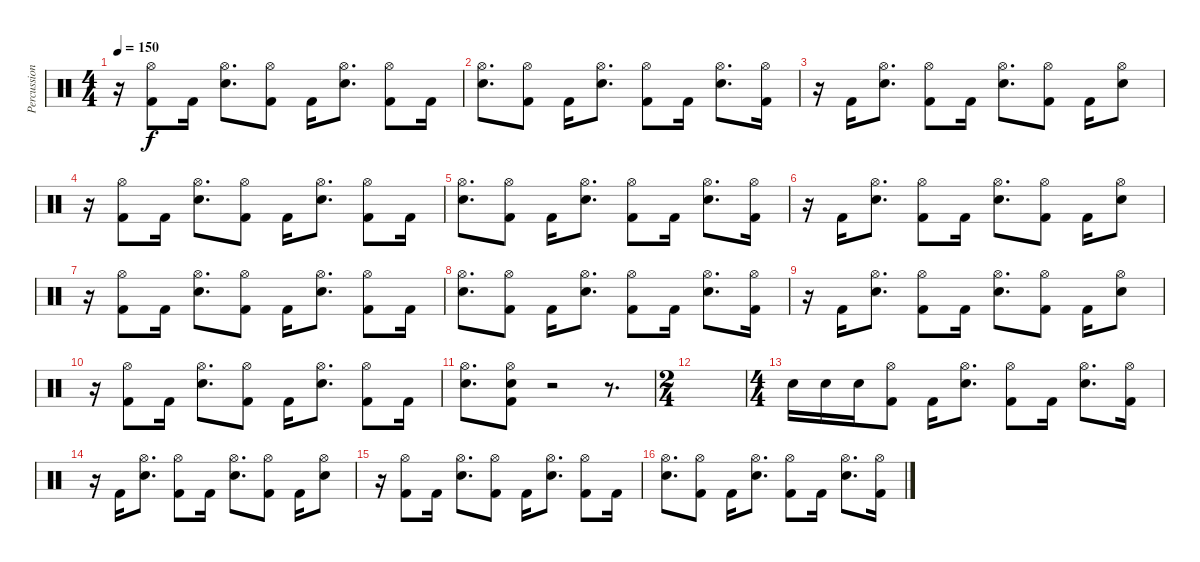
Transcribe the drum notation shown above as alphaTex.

\track ("Percussion" "Percussion") {instrument percussion}
\staff {score}
\articulation defaults
\ts (4 4)
\tempo 150
\clef neutral
\ks c
r.16{dy f} ("Hi-Hat (open)" "Kick (hit) 2").8 "Kick (hit) 2".16 ("Hi-Hat (open)" "Electric Snare (hit)").8{d} ("Hi-Hat (open)" "Kick (hit) 2").8 "Kick (hit) 2".16 ("Hi-Hat (open)" "Electric Snare (hit)").8{d} ("Hi-Hat (open)" "Kick (hit) 2").8 "Kick (hit) 2".16 |
("Hi-Hat (open)" "Electric Snare (hit)").8{d} ("Hi-Hat (open)" "Kick (hit) 2").8 "Kick (hit) 2".16 ("Hi-Hat (open)" "Electric Snare (hit)").8{d} ("Hi-Hat (open)" "Kick (hit) 2").8 "Kick (hit) 2".16 ("Hi-Hat (open)" "Electric Snare (hit)").8{d} ("Hi-Hat (open)" "Kick (hit) 2").16 |
r.16 "Kick (hit) 2".16 ("Hi-Hat (open)" "Electric Snare (hit)").8{d} ("Hi-Hat (open)" "Kick (hit) 2").8 "Kick (hit) 2".16 ("Hi-Hat (open)" "Electric Snare (hit)").8{d} ("Hi-Hat (open)" "Kick (hit) 2").8 "Kick (hit) 2".16 ("Hi-Hat (open)" "Electric Snare (hit)").8 |
r.16 ("Hi-Hat (open)" "Kick (hit) 2").8 "Kick (hit) 2".16 ("Hi-Hat (open)" "Electric Snare (hit)").8{d} ("Hi-Hat (open)" "Kick (hit) 2").8 "Kick (hit) 2".16 ("Hi-Hat (open)" "Electric Snare (hit)").8{d} ("Hi-Hat (open)" "Kick (hit) 2").8 "Kick (hit) 2".16 |
("Hi-Hat (open)" "Electric Snare (hit)").8{d} ("Hi-Hat (open)" "Kick (hit) 2").8 "Kick (hit) 2".16 ("Hi-Hat (open)" "Electric Snare (hit)").8{d} ("Hi-Hat (open)" "Kick (hit) 2").8 "Kick (hit) 2".16 ("Hi-Hat (open)" "Electric Snare (hit)").8{d} ("Hi-Hat (open)" "Kick (hit) 2").16 |
r.16 "Kick (hit) 2".16 ("Hi-Hat (open)" "Electric Snare (hit)").8{d} ("Hi-Hat (open)" "Kick (hit) 2").8 "Kick (hit) 2".16 ("Hi-Hat (open)" "Electric Snare (hit)").8{d} ("Hi-Hat (open)" "Kick (hit) 2").8 "Kick (hit) 2".16 ("Hi-Hat (open)" "Electric Snare (hit)").8 |
r.16 ("Hi-Hat (open)" "Kick (hit) 2").8 "Kick (hit) 2".16 ("Hi-Hat (open)" "Electric Snare (hit)").8{d} ("Hi-Hat (open)" "Kick (hit) 2").8 "Kick (hit) 2".16 ("Hi-Hat (open)" "Electric Snare (hit)").8{d} ("Hi-Hat (open)" "Kick (hit) 2").8 "Kick (hit) 2".16 |
("Hi-Hat (open)" "Electric Snare (hit)").8{d} ("Hi-Hat (open)" "Kick (hit) 2").8 "Kick (hit) 2".16 ("Hi-Hat (open)" "Electric Snare (hit)").8{d} ("Hi-Hat (open)" "Kick (hit) 2").8 "Kick (hit) 2".16 ("Hi-Hat (open)" "Electric Snare (hit)").8{d} ("Hi-Hat (open)" "Kick (hit) 2").16 |
r.16 "Kick (hit) 2".16 ("Hi-Hat (open)" "Electric Snare (hit)").8{d} ("Hi-Hat (open)" "Kick (hit) 2").8 "Kick (hit) 2".16 ("Hi-Hat (open)" "Electric Snare (hit)").8{d} ("Hi-Hat (open)" "Kick (hit) 2").8 "Kick (hit) 2".16 ("Hi-Hat (open)" "Electric Snare (hit)").8 |
r.16 ("Hi-Hat (open)" "Kick (hit) 2").8 "Kick (hit) 2".16 ("Hi-Hat (open)" "Electric Snare (hit)").8{d} ("Hi-Hat (open)" "Kick (hit) 2").8 "Kick (hit) 2".16 ("Hi-Hat (open)" "Electric Snare (hit)").8{d} ("Hi-Hat (open)" "Kick (hit) 2").8 "Kick (hit) 2".16 |
("Hi-Hat (open)" "Electric Snare (hit)").8{d} ("Hi-Hat (open)" "Electric Snare (hit)" "Kick (hit) 2").8 r.2 r.8{d} |
\ts (2 4)
|
\ts (4 4)
"Electric Snare (hit)".16 "Electric Snare (hit)".16 "Electric Snare (hit)".16 ("Hi-Hat (open)" "Kick (hit) 2").8 "Kick (hit) 2".16 ("Hi-Hat (open)" "Electric Snare (hit)").8{d} ("Hi-Hat (open)" "Kick (hit) 2").8 "Kick (hit) 2".16 ("Hi-Hat (open)" "Electric Snare (hit)").8{d} ("Hi-Hat (open)" "Kick (hit) 2").16 |
r.16 "Kick (hit) 2".16 ("Hi-Hat (open)" "Electric Snare (hit)").8{d} ("Hi-Hat (open)" "Kick (hit) 2").8 "Kick (hit) 2".16 ("Hi-Hat (open)" "Electric Snare (hit)").8{d} ("Hi-Hat (open)" "Kick (hit) 2").8 "Kick (hit) 2".16 ("Hi-Hat (open)" "Electric Snare (hit)").8 |
r.16 ("Hi-Hat (open)" "Kick (hit) 2").8 "Kick (hit) 2".16 ("Hi-Hat (open)" "Electric Snare (hit)").8{d} ("Hi-Hat (open)" "Kick (hit) 2").8 "Kick (hit) 2".16 ("Hi-Hat (open)" "Electric Snare (hit)").8{d} ("Hi-Hat (open)" "Kick (hit) 2").8 "Kick (hit) 2".16 |
("Hi-Hat (open)" "Electric Snare (hit)").8{d} ("Hi-Hat (open)" "Kick (hit) 2").8 "Kick (hit) 2".16 ("Hi-Hat (open)" "Electric Snare (hit)").8{d} ("Hi-Hat (open)" "Kick (hit) 2").8 "Kick (hit) 2".16 ("Hi-Hat (open)" "Electric Snare (hit)").8{d} ("Hi-Hat (open)" "Kick (hit) 2").16
